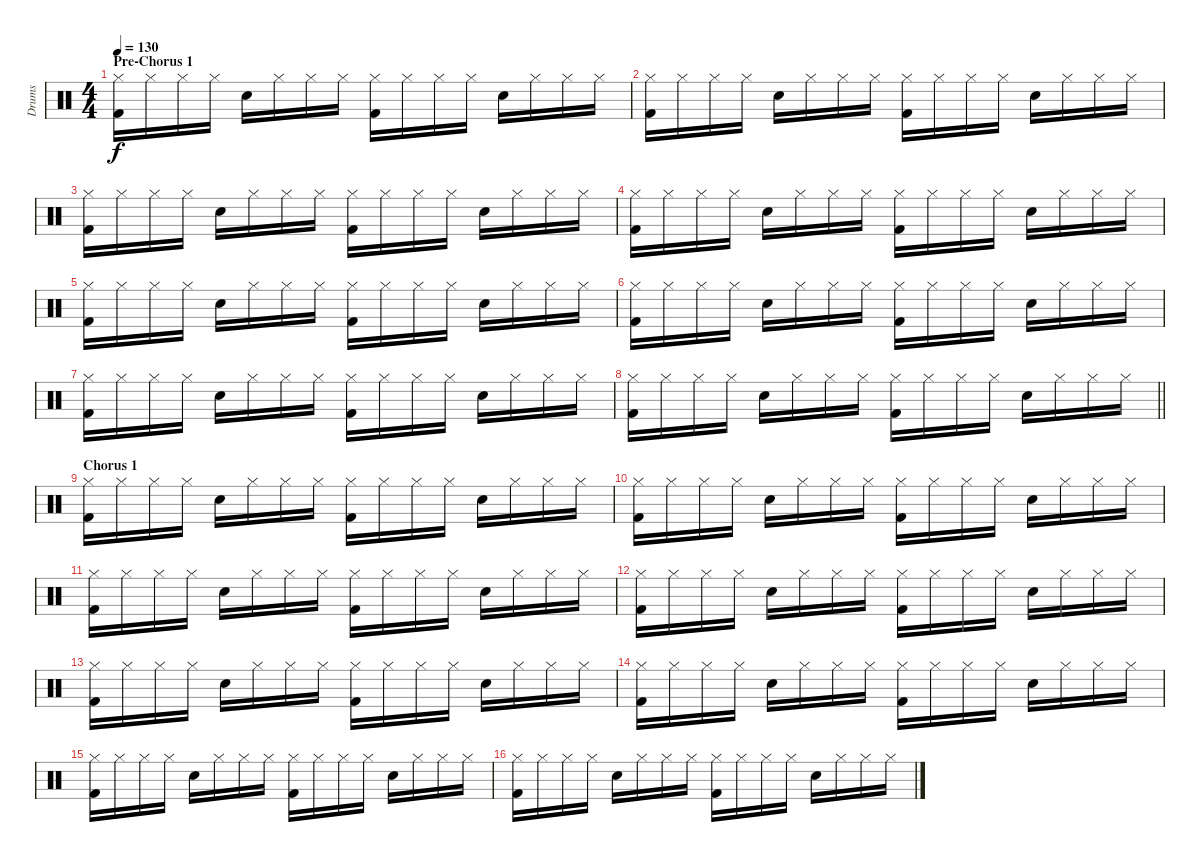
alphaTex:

\track ("Drums" "Drums") {instrument percussion}
\staff {score}
\articulation defaults
\ts (4 4)
\section ("" "Pre-Chorus 1")
\tempo 130
\clef neutral
\ks c
("Hi-Hat (closed)" "Kick (hit) 2").16{dy f} "Hi-Hat (closed)".16 "Hi-Hat (closed)".16 "Hi-Hat (closed)".16 "Snare (hit) 2".16 "Hi-Hat (closed)".16 "Hi-Hat (closed)".16 "Hi-Hat (closed)".16 ("Hi-Hat (closed)" "Kick (hit) 2").16 "Hi-Hat (closed)".16 "Hi-Hat (closed)".16 "Hi-Hat (closed)".16 "Snare (hit) 2".16 "Hi-Hat (closed)".16 "Hi-Hat (closed)".16 "Hi-Hat (closed)".16 |
("Hi-Hat (closed)" "Kick (hit) 2").16 "Hi-Hat (closed)".16 "Hi-Hat (closed)".16 "Hi-Hat (closed)".16 "Snare (hit) 2".16 "Hi-Hat (closed)".16 "Hi-Hat (closed)".16 "Hi-Hat (closed)".16 ("Hi-Hat (closed)" "Kick (hit) 2").16 "Hi-Hat (closed)".16 "Hi-Hat (closed)".16 "Hi-Hat (closed)".16 "Snare (hit) 2".16 "Hi-Hat (closed)".16 "Hi-Hat (closed)".16 "Hi-Hat (closed)".16 |
("Hi-Hat (closed)" "Kick (hit) 2").16 "Hi-Hat (closed)".16 "Hi-Hat (closed)".16 "Hi-Hat (closed)".16 "Snare (hit) 2".16 "Hi-Hat (closed)".16 "Hi-Hat (closed)".16 "Hi-Hat (closed)".16 ("Hi-Hat (closed)" "Kick (hit) 2").16 "Hi-Hat (closed)".16 "Hi-Hat (closed)".16 "Hi-Hat (closed)".16 "Snare (hit) 2".16 "Hi-Hat (closed)".16 "Hi-Hat (closed)".16 "Hi-Hat (closed)".16 |
("Hi-Hat (closed)" "Kick (hit) 2").16 "Hi-Hat (closed)".16 "Hi-Hat (closed)".16 "Hi-Hat (closed)".16 "Snare (hit) 2".16 "Hi-Hat (closed)".16 "Hi-Hat (closed)".16 "Hi-Hat (closed)".16 ("Hi-Hat (closed)" "Kick (hit) 2").16 "Hi-Hat (closed)".16 "Hi-Hat (closed)".16 "Hi-Hat (closed)".16 "Snare (hit) 2".16 "Hi-Hat (closed)".16 "Hi-Hat (closed)".16 "Hi-Hat (closed)".16 |
("Hi-Hat (closed)" "Kick (hit) 2").16 "Hi-Hat (closed)".16 "Hi-Hat (closed)".16 "Hi-Hat (closed)".16 "Snare (hit) 2".16 "Hi-Hat (closed)".16 "Hi-Hat (closed)".16 "Hi-Hat (closed)".16 ("Hi-Hat (closed)" "Kick (hit) 2").16 "Hi-Hat (closed)".16 "Hi-Hat (closed)".16 "Hi-Hat (closed)".16 "Snare (hit) 2".16 "Hi-Hat (closed)".16 "Hi-Hat (closed)".16 "Hi-Hat (closed)".16 |
("Hi-Hat (closed)" "Kick (hit) 2").16 "Hi-Hat (closed)".16 "Hi-Hat (closed)".16 "Hi-Hat (closed)".16 "Snare (hit) 2".16 "Hi-Hat (closed)".16 "Hi-Hat (closed)".16 "Hi-Hat (closed)".16 ("Hi-Hat (closed)" "Kick (hit) 2").16 "Hi-Hat (closed)".16 "Hi-Hat (closed)".16 "Hi-Hat (closed)".16 "Snare (hit) 2".16 "Hi-Hat (closed)".16 "Hi-Hat (closed)".16 "Hi-Hat (closed)".16 |
("Hi-Hat (closed)" "Kick (hit) 2").16 "Hi-Hat (closed)".16 "Hi-Hat (closed)".16 "Hi-Hat (closed)".16 "Snare (hit) 2".16 "Hi-Hat (closed)".16 "Hi-Hat (closed)".16 "Hi-Hat (closed)".16 ("Hi-Hat (closed)" "Kick (hit) 2").16 "Hi-Hat (closed)".16 "Hi-Hat (closed)".16 "Hi-Hat (closed)".16 "Snare (hit) 2".16 "Hi-Hat (closed)".16 "Hi-Hat (closed)".16 "Hi-Hat (closed)".16 |
\barLineRight lightlight
("Hi-Hat (closed)" "Kick (hit) 2").16 "Hi-Hat (closed)".16 "Hi-Hat (closed)".16 "Hi-Hat (closed)".16 "Snare (hit) 2".16 "Hi-Hat (closed)".16 "Hi-Hat (closed)".16 "Hi-Hat (closed)".16 ("Hi-Hat (closed)" "Kick (hit) 2").16 "Hi-Hat (closed)".16 "Hi-Hat (closed)".16 "Hi-Hat (closed)".16 "Snare (hit) 2".16 "Hi-Hat (closed)".16 "Hi-Hat (closed)".16 "Hi-Hat (closed)".16 |
\section ("" "Chorus 1")
("Hi-Hat (closed)" "Kick (hit) 2").16 "Hi-Hat (closed)".16 "Hi-Hat (closed)".16 "Hi-Hat (closed)".16 "Snare (hit) 2".16 "Hi-Hat (closed)".16 "Hi-Hat (closed)".16 "Hi-Hat (closed)".16 ("Hi-Hat (closed)" "Kick (hit) 2").16 "Hi-Hat (closed)".16 "Hi-Hat (closed)".16 "Hi-Hat (closed)".16 "Snare (hit) 2".16 "Hi-Hat (closed)".16 "Hi-Hat (closed)".16 "Hi-Hat (closed)".16 |
("Hi-Hat (closed)" "Kick (hit) 2").16 "Hi-Hat (closed)".16 "Hi-Hat (closed)".16 "Hi-Hat (closed)".16 "Snare (hit) 2".16 "Hi-Hat (closed)".16 "Hi-Hat (closed)".16 "Hi-Hat (closed)".16 ("Hi-Hat (closed)" "Kick (hit) 2").16 "Hi-Hat (closed)".16 "Hi-Hat (closed)".16 "Hi-Hat (closed)".16 "Snare (hit) 2".16 "Hi-Hat (closed)".16 "Hi-Hat (closed)".16 "Hi-Hat (closed)".16 |
("Hi-Hat (closed)" "Kick (hit) 2").16 "Hi-Hat (closed)".16 "Hi-Hat (closed)".16 "Hi-Hat (closed)".16 "Snare (hit) 2".16 "Hi-Hat (closed)".16 "Hi-Hat (closed)".16 "Hi-Hat (closed)".16 ("Hi-Hat (closed)" "Kick (hit) 2").16 "Hi-Hat (closed)".16 "Hi-Hat (closed)".16 "Hi-Hat (closed)".16 "Snare (hit) 2".16 "Hi-Hat (closed)".16 "Hi-Hat (closed)".16 "Hi-Hat (closed)".16 |
("Hi-Hat (closed)" "Kick (hit) 2").16 "Hi-Hat (closed)".16 "Hi-Hat (closed)".16 "Hi-Hat (closed)".16 "Snare (hit) 2".16 "Hi-Hat (closed)".16 "Hi-Hat (closed)".16 "Hi-Hat (closed)".16 ("Hi-Hat (closed)" "Kick (hit) 2").16 "Hi-Hat (closed)".16 "Hi-Hat (closed)".16 "Hi-Hat (closed)".16 "Snare (hit) 2".16 "Hi-Hat (closed)".16 "Hi-Hat (closed)".16 "Hi-Hat (closed)".16 |
("Hi-Hat (closed)" "Kick (hit) 2").16 "Hi-Hat (closed)".16 "Hi-Hat (closed)".16 "Hi-Hat (closed)".16 "Snare (hit) 2".16 "Hi-Hat (closed)".16 "Hi-Hat (closed)".16 "Hi-Hat (closed)".16 ("Hi-Hat (closed)" "Kick (hit) 2").16 "Hi-Hat (closed)".16 "Hi-Hat (closed)".16 "Hi-Hat (closed)".16 "Snare (hit) 2".16 "Hi-Hat (closed)".16 "Hi-Hat (closed)".16 "Hi-Hat (closed)".16 |
("Hi-Hat (closed)" "Kick (hit) 2").16 "Hi-Hat (closed)".16 "Hi-Hat (closed)".16 "Hi-Hat (closed)".16 "Snare (hit) 2".16 "Hi-Hat (closed)".16 "Hi-Hat (closed)".16 "Hi-Hat (closed)".16 ("Hi-Hat (closed)" "Kick (hit) 2").16 "Hi-Hat (closed)".16 "Hi-Hat (closed)".16 "Hi-Hat (closed)".16 "Snare (hit) 2".16 "Hi-Hat (closed)".16 "Hi-Hat (closed)".16 "Hi-Hat (closed)".16 |
("Hi-Hat (closed)" "Kick (hit) 2").16 "Hi-Hat (closed)".16 "Hi-Hat (closed)".16 "Hi-Hat (closed)".16 "Snare (hit) 2".16 "Hi-Hat (closed)".16 "Hi-Hat (closed)".16 "Hi-Hat (closed)".16 ("Hi-Hat (closed)" "Kick (hit) 2").16 "Hi-Hat (closed)".16 "Hi-Hat (closed)".16 "Hi-Hat (closed)".16 "Snare (hit) 2".16 "Hi-Hat (closed)".16 "Hi-Hat (closed)".16 "Hi-Hat (closed)".16 |
("Hi-Hat (closed)" "Kick (hit) 2").16 "Hi-Hat (closed)".16 "Hi-Hat (closed)".16 "Hi-Hat (closed)".16 "Snare (hit) 2".16 "Hi-Hat (closed)".16 "Hi-Hat (closed)".16 "Hi-Hat (closed)".16 ("Hi-Hat (closed)" "Kick (hit) 2").16 "Hi-Hat (closed)".16 "Hi-Hat (closed)".16 "Hi-Hat (closed)".16 "Snare (hit) 2".16 "Hi-Hat (closed)".16 "Hi-Hat (closed)".16 "Hi-Hat (closed)".16
